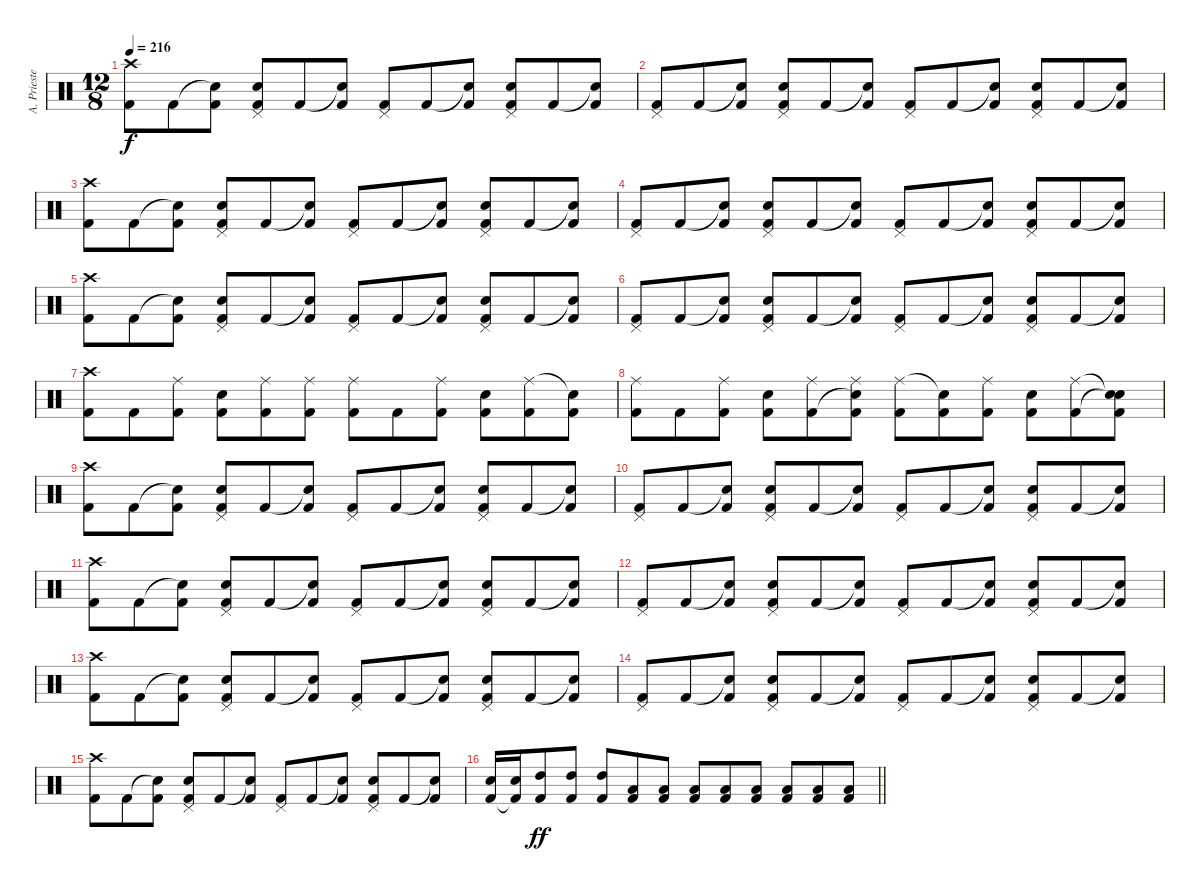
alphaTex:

\track ("A. Priester" "A. Prieste") {instrument percussion}
\staff {score}
\articulation defaults
\ts (12 8)
\tempo 216
\clef neutral
\ks c
("Crash high (hit)" "Kick (hit) 2").8{dy f} "Kick (hit) 2".8 ("Snare (hit)"{t} "Kick (hit) 2").8 ("Pedal Hi-Hat (hit)" "Electric Snare (hit)" "Kick (hit) 2").8 "Kick (hit) 2".8 ("Snare (hit)"{t} "Kick (hit) 2").8 ("Pedal Hi-Hat (hit)" "Kick (hit) 2").8 "Kick (hit) 2".8 ("Snare (hit)"{t} "Kick (hit) 2").8 ("Pedal Hi-Hat (hit)" "Electric Snare (hit)" "Kick (hit) 2").8 "Kick (hit) 2".8 ("Snare (hit)"{t} "Kick (hit) 2").8 |
("Pedal Hi-Hat (hit)" "Kick (hit) 2").8 "Kick (hit) 2".8 ("Snare (hit)"{t} "Kick (hit) 2").8 ("Pedal Hi-Hat (hit)" "Electric Snare (hit)" "Kick (hit) 2").8 "Kick (hit) 2".8 ("Snare (hit)"{t} "Kick (hit) 2").8 ("Pedal Hi-Hat (hit)" "Kick (hit) 2").8 "Kick (hit) 2".8 ("Snare (hit)"{t} "Kick (hit) 2").8 ("Pedal Hi-Hat (hit)" "Electric Snare (hit)" "Kick (hit) 2").8 "Kick (hit) 2".8 ("Snare (hit)"{t} "Kick (hit) 2").8 |
("Crash high (hit)" "Kick (hit) 2").8 "Kick (hit) 2".8 ("Snare (hit)"{t} "Kick (hit) 2").8 ("Pedal Hi-Hat (hit)" "Electric Snare (hit)" "Kick (hit) 2").8 "Kick (hit) 2".8 ("Snare (hit)"{t} "Kick (hit) 2").8 ("Pedal Hi-Hat (hit)" "Kick (hit) 2").8 "Kick (hit) 2".8 ("Snare (hit)"{t} "Kick (hit) 2").8 ("Pedal Hi-Hat (hit)" "Electric Snare (hit)" "Kick (hit) 2").8 "Kick (hit) 2".8 ("Snare (hit)"{t} "Kick (hit) 2").8 |
("Pedal Hi-Hat (hit)" "Kick (hit) 2").8 "Kick (hit) 2".8 ("Snare (hit)"{t} "Kick (hit) 2").8 ("Pedal Hi-Hat (hit)" "Electric Snare (hit)" "Kick (hit) 2").8 "Kick (hit) 2".8 ("Snare (hit)"{t} "Kick (hit) 2").8 ("Pedal Hi-Hat (hit)" "Kick (hit) 2").8 "Kick (hit) 2".8 ("Snare (hit)"{t} "Kick (hit) 2").8 ("Pedal Hi-Hat (hit)" "Electric Snare (hit)" "Kick (hit) 2").8 "Kick (hit) 2".8 ("Snare (hit)"{t} "Kick (hit) 2").8 |
("Crash high (hit)" "Kick (hit) 2").8 "Kick (hit) 2".8 ("Snare (hit)"{t} "Kick (hit) 2").8 ("Pedal Hi-Hat (hit)" "Electric Snare (hit)" "Kick (hit) 2").8 "Kick (hit) 2".8 ("Snare (hit)"{t} "Kick (hit) 2").8 ("Pedal Hi-Hat (hit)" "Kick (hit) 2").8 "Kick (hit) 2".8 ("Snare (hit)"{t} "Kick (hit) 2").8 ("Pedal Hi-Hat (hit)" "Electric Snare (hit)" "Kick (hit) 2").8 "Kick (hit) 2".8 ("Snare (hit)"{t} "Kick (hit) 2").8 |
("Pedal Hi-Hat (hit)" "Kick (hit) 2").8 "Kick (hit) 2".8 ("Snare (hit)"{t} "Kick (hit) 2").8 ("Pedal Hi-Hat (hit)" "Electric Snare (hit)" "Kick (hit) 2").8 "Kick (hit) 2".8 ("Snare (hit)"{t} "Kick (hit) 2").8 ("Pedal Hi-Hat (hit)" "Kick (hit) 2").8 "Kick (hit) 2".8 ("Snare (hit)"{t} "Kick (hit) 2").8 ("Pedal Hi-Hat (hit)" "Electric Snare (hit)" "Kick (hit) 2").8 "Kick (hit) 2".8 ("Snare (hit)"{t} "Kick (hit) 2").8 |
("Crash high (hit)" "Kick (hit) 2").8 "Kick (hit) 2".8 ("Ride (middle)" "Kick (hit) 2").8 ("Electric Snare (hit)" "Kick (hit) 2").8 ("Ride (middle)" "Kick (hit) 2").8 ("Ride (middle)" "Kick (hit) 2").8 ("Ride (middle)" "Kick (hit) 2").8 "Kick (hit) 2".8 ("Ride (middle)" "Kick (hit) 2").8 ("Electric Snare (hit)" "Kick (hit) 2").8 ("Ride (middle)" "Kick (hit) 2").8 ("Snare (hit)"{t} "Kick (hit) 2").8 |
("Ride (middle)" "Kick (hit) 2").8 "Kick (hit) 2".8 ("Ride (middle)" "Kick (hit) 2").8 ("Electric Snare (hit)" "Kick (hit) 2").8 ("Ride (middle)" "Kick (hit) 2").8 ("Ride (middle)" "Snare (hit)"{t} "Kick (hit) 2").8 ("Ride (middle)" "Kick (hit) 2").8 ("Snare (hit)"{t} "Kick (hit) 2").8 ("Ride (middle)" "Kick (hit) 2").8 ("Electric Snare (hit)" "Kick (hit) 2").8 ("Ride (middle)" "Kick (hit) 2").8 ("Snare (hit)"{t} "Snare (hit)"{t} "Kick (hit) 2").8 |
("Crash high (hit)" "Kick (hit) 2").8 "Kick (hit) 2".8 ("Snare (hit)"{t} "Kick (hit) 2").8 ("Pedal Hi-Hat (hit)" "Electric Snare (hit)" "Kick (hit) 2").8 "Kick (hit) 2".8 ("Snare (hit)"{t} "Kick (hit) 2").8 ("Pedal Hi-Hat (hit)" "Kick (hit) 2").8 "Kick (hit) 2".8 ("Snare (hit)"{t} "Kick (hit) 2").8 ("Pedal Hi-Hat (hit)" "Electric Snare (hit)" "Kick (hit) 2").8 "Kick (hit) 2".8 ("Snare (hit)"{t} "Kick (hit) 2").8 |
("Pedal Hi-Hat (hit)" "Kick (hit) 2").8 "Kick (hit) 2".8 ("Snare (hit)"{t} "Kick (hit) 2").8 ("Pedal Hi-Hat (hit)" "Electric Snare (hit)" "Kick (hit) 2").8 "Kick (hit) 2".8 ("Snare (hit)"{t} "Kick (hit) 2").8 ("Pedal Hi-Hat (hit)" "Kick (hit) 2").8 "Kick (hit) 2".8 ("Snare (hit)"{t} "Kick (hit) 2").8 ("Pedal Hi-Hat (hit)" "Electric Snare (hit)" "Kick (hit) 2").8 "Kick (hit) 2".8 ("Snare (hit)"{t} "Kick (hit) 2").8 |
("Crash high (hit)" "Kick (hit) 2").8 "Kick (hit) 2".8 ("Snare (hit)"{t} "Kick (hit) 2").8 ("Pedal Hi-Hat (hit)" "Electric Snare (hit)" "Kick (hit) 2").8 "Kick (hit) 2".8 ("Snare (hit)"{t} "Kick (hit) 2").8 ("Pedal Hi-Hat (hit)" "Kick (hit) 2").8 "Kick (hit) 2".8 ("Snare (hit)"{t} "Kick (hit) 2").8 ("Pedal Hi-Hat (hit)" "Electric Snare (hit)" "Kick (hit) 2").8 "Kick (hit) 2".8 ("Snare (hit)"{t} "Kick (hit) 2").8 |
("Pedal Hi-Hat (hit)" "Kick (hit) 2").8 "Kick (hit) 2".8 ("Snare (hit)"{t} "Kick (hit) 2").8 ("Pedal Hi-Hat (hit)" "Electric Snare (hit)" "Kick (hit) 2").8 "Kick (hit) 2".8 ("Snare (hit)"{t} "Kick (hit) 2").8 ("Pedal Hi-Hat (hit)" "Kick (hit) 2").8 "Kick (hit) 2".8 ("Snare (hit)"{t} "Kick (hit) 2").8 ("Pedal Hi-Hat (hit)" "Electric Snare (hit)" "Kick (hit) 2").8 "Kick (hit) 2".8 ("Snare (hit)"{t} "Kick (hit) 2").8 |
("Crash high (hit)" "Kick (hit) 2").8 "Kick (hit) 2".8 ("Snare (hit)"{t} "Kick (hit) 2").8 ("Pedal Hi-Hat (hit)" "Electric Snare (hit)" "Kick (hit) 2").8 "Kick (hit) 2".8 ("Snare (hit)"{t} "Kick (hit) 2").8 ("Pedal Hi-Hat (hit)" "Kick (hit) 2").8 "Kick (hit) 2".8 ("Snare (hit)"{t} "Kick (hit) 2").8 ("Pedal Hi-Hat (hit)" "Electric Snare (hit)" "Kick (hit) 2").8 "Kick (hit) 2".8 ("Snare (hit)"{t} "Kick (hit) 2").8 |
("Pedal Hi-Hat (hit)" "Kick (hit) 2").8 "Kick (hit) 2".8 ("Snare (hit)"{t} "Kick (hit) 2").8 ("Pedal Hi-Hat (hit)" "Electric Snare (hit)" "Kick (hit) 2").8 "Kick (hit) 2".8 ("Snare (hit)"{t} "Kick (hit) 2").8 ("Pedal Hi-Hat (hit)" "Kick (hit) 2").8 "Kick (hit) 2".8 ("Snare (hit)"{t} "Kick (hit) 2").8 ("Pedal Hi-Hat (hit)" "Electric Snare (hit)" "Kick (hit) 2").8 "Kick (hit) 2".8 ("Snare (hit)"{t} "Kick (hit) 2").8 |
("Crash high (hit)" "Kick (hit) 2").8 "Kick (hit) 2".8 ("Snare (hit)"{t} "Kick (hit) 2").8 ("Pedal Hi-Hat (hit)" "Electric Snare (hit)" "Kick (hit) 2").8 "Kick (hit) 2".8 ("Snare (hit)"{t} "Kick (hit) 2").8 ("Pedal Hi-Hat (hit)" "Kick (hit) 2").8 "Kick (hit) 2".8 ("Snare (hit)"{t} "Kick (hit) 2").8 ("Pedal Hi-Hat (hit)" "Electric Snare (hit)" "Kick (hit) 2").8 "Kick (hit) 2".8 ("Snare (hit)"{t} "Kick (hit) 2").8 |
\barLineRight lightlight
("Electric Snare (hit)" "Kick (hit) 2").16 ("Electric Snare (hit)" "Kick (hit) 2"{t}).16 ("High Tom (hit)" "Kick (hit) 2").8{dy ff} ("High Tom (hit)" "Kick (hit) 2").8 ("High Tom (hit)" "Kick (hit) 2").8 ("Low Tom (hit)" "Kick (hit) 2").8 ("Low Tom (hit)" "Kick (hit) 2").8 ("Low Tom (hit)" "Kick (hit) 2").8 ("Low Tom (hit)" "Kick (hit) 2").8 ("Low Floor Tom (hit)" "Kick (hit) 2").8 ("Low Floor Tom (hit)" "Kick (hit) 2").8 ("Low Floor Tom (hit)" "Kick (hit) 2").8 ("Low Floor Tom (hit)" "Kick (hit) 2").8
